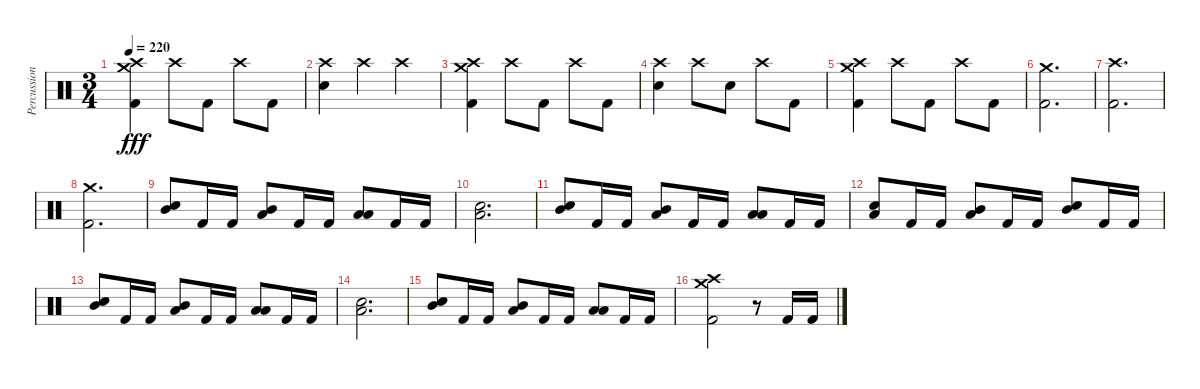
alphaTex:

\track ("Percussions" "Percussion") {instrument percussion}
\staff {score}
\articulation defaults
\ts (3 4)
\tempo 220
\clef neutral
\ks c
("Crash high (hit)" "Crash medium (hit)" "Kick (hit) 2").4{bd 240 dy fff} "Crash high (hit)".8 "Kick (hit) 2".8 "Crash high (hit)".8 "Kick (hit) 2".8 |
("Crash high (hit)" "Electric Snare (hit)").4 "Crash high (hit)".4 "Crash high (hit)".4 |
("Crash high (hit)" "Crash medium (hit)" "Kick (hit) 2").4 "Crash high (hit)".8 "Kick (hit) 2".8 "Crash high (hit)".8 "Kick (hit) 2".8 |
("Crash high (hit)" "Electric Snare (hit)").4 "Crash high (hit)".8 "Electric Snare (hit)".8 "Crash high (hit)".8 "Kick (hit) 2".8 |
("Crash high (hit)" "Crash medium (hit)" "Kick (hit) 2").4 "Crash high (hit)".8 "Kick (hit) 2".8 "Crash high (hit)".8 "Kick (hit) 2".8 |
("Crash medium (hit)" "Kick (hit) 2").2{d} |
("Crash high (hit)" "Kick (hit) 2").2{d} |
("Crash medium (hit)" "Kick (hit) 2").2{d} |
("Mid Tom (hit)" "Electric Snare (hit)").8 "Kick (hit) 2".16 "Kick (hit) 2".16 ("Low Tom (hit)" "Mid Tom (hit)").8 "Kick (hit) 2".16 "Kick (hit) 2".16 ("Low Floor Tom (hit)" "Low Tom (hit)").8 "Kick (hit) 2".16 "Kick (hit) 2".16 |
("Low Floor Tom (hit)" "Electric Snare (hit)").2{d} |
("Mid Tom (hit)" "Electric Snare (hit)").8 "Kick (hit) 2".16 "Kick (hit) 2".16 ("Low Tom (hit)" "Mid Tom (hit)").8 "Kick (hit) 2".16 "Kick (hit) 2".16 ("Low Floor Tom (hit)" "Low Tom (hit)").8 "Kick (hit) 2".16 "Kick (hit) 2".16 |
("Low Floor Tom (hit)" "Electric Snare (hit)").8 "Kick (hit) 2".16 "Kick (hit) 2".16 ("Low Tom (hit)" "Mid Tom (hit)").8 "Kick (hit) 2".16 "Kick (hit) 2".16 ("Mid Tom (hit)" "Electric Snare (hit)").8 "Kick (hit) 2".16 "Kick (hit) 2".16 |
("Mid Tom (hit)" "Electric Snare (hit)").8 "Kick (hit) 2".16 "Kick (hit) 2".16 ("Low Tom (hit)" "Mid Tom (hit)").8 "Kick (hit) 2".16 "Kick (hit) 2".16 ("Low Floor Tom (hit)" "Low Tom (hit)").8 "Kick (hit) 2".16 "Kick (hit) 2".16 |
("Low Floor Tom (hit)" "Electric Snare (hit)").2{d} |
("Mid Tom (hit)" "Electric Snare (hit)").8 "Kick (hit) 2".16 "Kick (hit) 2".16 ("Low Tom (hit)" "Mid Tom (hit)").8 "Kick (hit) 2".16 "Kick (hit) 2".16 ("Low Floor Tom (hit)" "Low Tom (hit)").8 "Kick (hit) 2".16 "Kick (hit) 2".16 |
("Crash medium (hit)" "Crash high (hit)" "Kick (hit) 2").2 r.8 "Kick (hit) 2".16 "Kick (hit) 2".16
